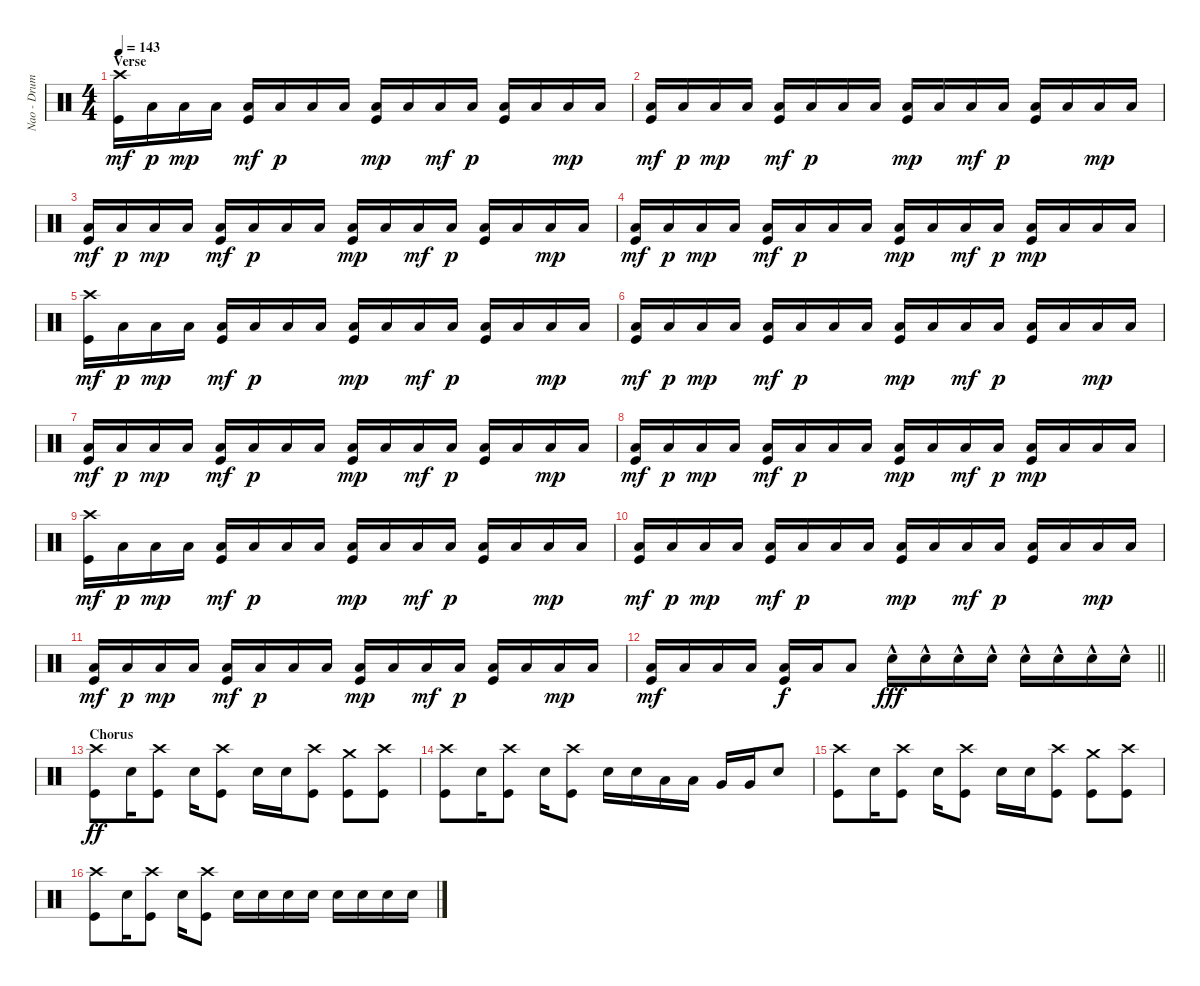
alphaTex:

\track ("Nao - Drums" "Nao - Drum") {instrument percussion}
\staff {score}
\articulation defaults
\ts (4 4)
\section ("" "Verse")
\tempo 143
\clef neutral
\ks c
("Kick (hit)" "Crash high (hit)").16{dy mf} "Low Floor Tom (hit)".16{dy p} "Low Floor Tom (hit)".16{dy mp} "Low Floor Tom (hit)".16 ("Low Floor Tom (hit)" "Kick (hit)").16{dy mf} "Low Floor Tom (hit)".16{dy p} "Low Floor Tom (hit)".16 "Low Floor Tom (hit)".16 ("Low Floor Tom (hit)" "Kick (hit)").16{dy mp} "Low Floor Tom (hit)".16 "Low Floor Tom (hit)".16{dy mf} "Low Floor Tom (hit)".16{dy p} ("Kick (hit)" "Low Floor Tom (hit)").16 "Low Floor Tom (hit)".16 "Low Floor Tom (hit)".16{dy mp} "Low Floor Tom (hit)".16 |
("Low Floor Tom (hit)" "Kick (hit)").16{dy mf} "Low Floor Tom (hit)".16{dy p} "Low Floor Tom (hit)".16{dy mp} "Low Floor Tom (hit)".16 ("Low Floor Tom (hit)" "Kick (hit)").16{dy mf} "Low Floor Tom (hit)".16{dy p} "Low Floor Tom (hit)".16 "Low Floor Tom (hit)".16 ("Low Floor Tom (hit)" "Kick (hit)").16{dy mp} "Low Floor Tom (hit)".16 "Low Floor Tom (hit)".16{dy mf} "Low Floor Tom (hit)".16{dy p} ("Kick (hit)" "Low Floor Tom (hit)").16 "Low Floor Tom (hit)".16 "Low Floor Tom (hit)".16{dy mp} "Low Floor Tom (hit)".16 |
("Low Floor Tom (hit)" "Kick (hit)").16{dy mf} "Low Floor Tom (hit)".16{dy p} "Low Floor Tom (hit)".16{dy mp} "Low Floor Tom (hit)".16 ("Low Floor Tom (hit)" "Kick (hit)").16{dy mf} "Low Floor Tom (hit)".16{dy p} "Low Floor Tom (hit)".16 "Low Floor Tom (hit)".16 ("Low Floor Tom (hit)" "Kick (hit)").16{dy mp} "Low Floor Tom (hit)".16 "Low Floor Tom (hit)".16{dy mf} "Low Floor Tom (hit)".16{dy p} ("Kick (hit)" "Low Floor Tom (hit)").16 "Low Floor Tom (hit)".16 "Low Floor Tom (hit)".16{dy mp} "Low Floor Tom (hit)".16 |
("Low Floor Tom (hit)" "Kick (hit)").16{dy mf} "Low Floor Tom (hit)".16{dy p} "Low Floor Tom (hit)".16{dy mp} "Low Floor Tom (hit)".16 ("Low Floor Tom (hit)" "Kick (hit)").16{dy mf} "Low Floor Tom (hit)".16{dy p} "Low Floor Tom (hit)".16 "Low Floor Tom (hit)".16 ("Low Floor Tom (hit)" "Kick (hit)").16{dy mp} "Low Floor Tom (hit)".16 "Low Floor Tom (hit)".16{dy mf} "Low Floor Tom (hit)".16{dy p} ("Kick (hit)" "Low Floor Tom (hit)").16{dy mp} "Low Floor Tom (hit)".16 "Low Floor Tom (hit)".16 "Low Floor Tom (hit)".16 |
("Kick (hit)" "Crash high (hit)").16{dy mf} "Low Floor Tom (hit)".16{dy p} "Low Floor Tom (hit)".16{dy mp} "Low Floor Tom (hit)".16 ("Low Floor Tom (hit)" "Kick (hit)").16{dy mf} "Low Floor Tom (hit)".16{dy p} "Low Floor Tom (hit)".16 "Low Floor Tom (hit)".16 ("Low Floor Tom (hit)" "Kick (hit)").16{dy mp} "Low Floor Tom (hit)".16 "Low Floor Tom (hit)".16{dy mf} "Low Floor Tom (hit)".16{dy p} ("Kick (hit)" "Low Floor Tom (hit)").16 "Low Floor Tom (hit)".16 "Low Floor Tom (hit)".16{dy mp} "Low Floor Tom (hit)".16 |
("Low Floor Tom (hit)" "Kick (hit)").16{dy mf} "Low Floor Tom (hit)".16{dy p} "Low Floor Tom (hit)".16{dy mp} "Low Floor Tom (hit)".16 ("Low Floor Tom (hit)" "Kick (hit)").16{dy mf} "Low Floor Tom (hit)".16{dy p} "Low Floor Tom (hit)".16 "Low Floor Tom (hit)".16 ("Low Floor Tom (hit)" "Kick (hit)").16{dy mp} "Low Floor Tom (hit)".16 "Low Floor Tom (hit)".16{dy mf} "Low Floor Tom (hit)".16{dy p} ("Kick (hit)" "Low Floor Tom (hit)").16 "Low Floor Tom (hit)".16 "Low Floor Tom (hit)".16{dy mp} "Low Floor Tom (hit)".16 |
("Low Floor Tom (hit)" "Kick (hit)").16{dy mf} "Low Floor Tom (hit)".16{dy p} "Low Floor Tom (hit)".16{dy mp} "Low Floor Tom (hit)".16 ("Low Floor Tom (hit)" "Kick (hit)").16{dy mf} "Low Floor Tom (hit)".16{dy p} "Low Floor Tom (hit)".16 "Low Floor Tom (hit)".16 ("Low Floor Tom (hit)" "Kick (hit)").16{dy mp} "Low Floor Tom (hit)".16 "Low Floor Tom (hit)".16{dy mf} "Low Floor Tom (hit)".16{dy p} ("Kick (hit)" "Low Floor Tom (hit)").16 "Low Floor Tom (hit)".16 "Low Floor Tom (hit)".16{dy mp} "Low Floor Tom (hit)".16 |
("Low Floor Tom (hit)" "Kick (hit)").16{dy mf} "Low Floor Tom (hit)".16{dy p} "Low Floor Tom (hit)".16{dy mp} "Low Floor Tom (hit)".16 ("Low Floor Tom (hit)" "Kick (hit)").16{dy mf} "Low Floor Tom (hit)".16{dy p} "Low Floor Tom (hit)".16 "Low Floor Tom (hit)".16 ("Low Floor Tom (hit)" "Kick (hit)").16{dy mp} "Low Floor Tom (hit)".16 "Low Floor Tom (hit)".16{dy mf} "Low Floor Tom (hit)".16{dy p} ("Kick (hit)" "Low Floor Tom (hit)").16{dy mp} "Low Floor Tom (hit)".16 "Low Floor Tom (hit)".16 "Low Floor Tom (hit)".16 |
("Kick (hit)" "Crash high (hit)").16{dy mf} "Low Floor Tom (hit)".16{dy p} "Low Floor Tom (hit)".16{dy mp} "Low Floor Tom (hit)".16 ("Low Floor Tom (hit)" "Kick (hit)").16{dy mf} "Low Floor Tom (hit)".16{dy p} "Low Floor Tom (hit)".16 "Low Floor Tom (hit)".16 ("Low Floor Tom (hit)" "Kick (hit)").16{dy mp} "Low Floor Tom (hit)".16 "Low Floor Tom (hit)".16{dy mf} "Low Floor Tom (hit)".16{dy p} ("Kick (hit)" "Low Floor Tom (hit)").16 "Low Floor Tom (hit)".16 "Low Floor Tom (hit)".16{dy mp} "Low Floor Tom (hit)".16 |
("Low Floor Tom (hit)" "Kick (hit)").16{dy mf} "Low Floor Tom (hit)".16{dy p} "Low Floor Tom (hit)".16{dy mp} "Low Floor Tom (hit)".16 ("Low Floor Tom (hit)" "Kick (hit)").16{dy mf} "Low Floor Tom (hit)".16{dy p} "Low Floor Tom (hit)".16 "Low Floor Tom (hit)".16 ("Low Floor Tom (hit)" "Kick (hit)").16{dy mp} "Low Floor Tom (hit)".16 "Low Floor Tom (hit)".16{dy mf} "Low Floor Tom (hit)".16{dy p} ("Kick (hit)" "Low Floor Tom (hit)").16 "Low Floor Tom (hit)".16 "Low Floor Tom (hit)".16{dy mp} "Low Floor Tom (hit)".16 |
("Low Floor Tom (hit)" "Kick (hit)").16{dy mf} "Low Floor Tom (hit)".16{dy p} "Low Floor Tom (hit)".16{dy mp} "Low Floor Tom (hit)".16 ("Low Floor Tom (hit)" "Kick (hit)").16{dy mf} "Low Floor Tom (hit)".16{dy p} "Low Floor Tom (hit)".16 "Low Floor Tom (hit)".16 ("Low Floor Tom (hit)" "Kick (hit)").16{dy mp} "Low Floor Tom (hit)".16 "Low Floor Tom (hit)".16{dy mf} "Low Floor Tom (hit)".16{dy p} ("Kick (hit)" "Low Floor Tom (hit)").16 "Low Floor Tom (hit)".16 "Low Floor Tom (hit)".16{dy mp} "Low Floor Tom (hit)".16 |
\barLineRight lightlight
("Kick (hit)" "Low Floor Tom (hit)").16{dy mf} "Low Floor Tom (hit)".16 "Low Floor Tom (hit)".16 "Low Floor Tom (hit)".16 ("Low Floor Tom (hit)" "Kick (hit)").16{dy f} "Low Floor Tom (hit)".16 "Low Floor Tom (hit)".8 "Snare (hit) 2"{hac}.16{dy fff} "Snare (hit) 2"{hac}.16 "Snare (hit) 2"{hac}.16 "Snare (hit) 2"{hac}.16 "Snare (hit) 2"{hac}.16 "Snare (hit) 2"{hac}.16 "Snare (hit) 2"{hac}.16 "Snare (hit) 2"{hac}.16 |
\section ("" "Chorus")
("Crash high (hit)" "Kick (hit)").8{dy ff} "Snare (hit) 2".16 ("Crash high (hit)" "Kick (hit)").8 "Snare (hit) 2".16 ("Crash high (hit)" "Kick (hit)").8 "Snare (hit) 2".16 "Snare (hit) 2".16 ("Kick (hit)" "Crash high (hit)").8 ("Crash medium (hit)" "Kick (hit)").8 ("Crash high (hit)" "Kick (hit)").8 |
("Crash high (hit)" "Kick (hit)").8 "Snare (hit) 2".16 ("Crash high (hit)" "Kick (hit)").8 "Snare (hit) 2".16 ("Crash high (hit)" "Kick (hit)").8 "Snare (hit) 2".16 "Snare (hit) 2".16 "Low Tom (hit)".16 "Low Tom (hit)".16 "Very Low Tom (hit)".16 "Very Low Tom (hit)".16 "Snare (hit) 2".8 |
("Crash high (hit)" "Kick (hit)").8 "Snare (hit) 2".16 ("Crash high (hit)" "Kick (hit)").8 "Snare (hit) 2".16 ("Crash high (hit)" "Kick (hit)").8 "Snare (hit) 2".16 "Snare (hit) 2".16 ("Kick (hit)" "Crash high (hit)").8 ("Crash medium (hit)" "Kick (hit)").8 ("Crash high (hit)" "Kick (hit)").8 |
("Crash high (hit)" "Kick (hit)").8 "Snare (hit) 2".16 ("Crash high (hit)" "Kick (hit)").8 "Snare (hit) 2".16 ("Crash high (hit)" "Kick (hit)").8 "Snare (hit) 2".16 "Snare (hit) 2".16 "Snare (hit) 2".16 "Snare (hit) 2".16 "Snare (hit) 2".16 "Snare (hit) 2".16 "Snare (hit) 2".16 "Snare (hit) 2".16
